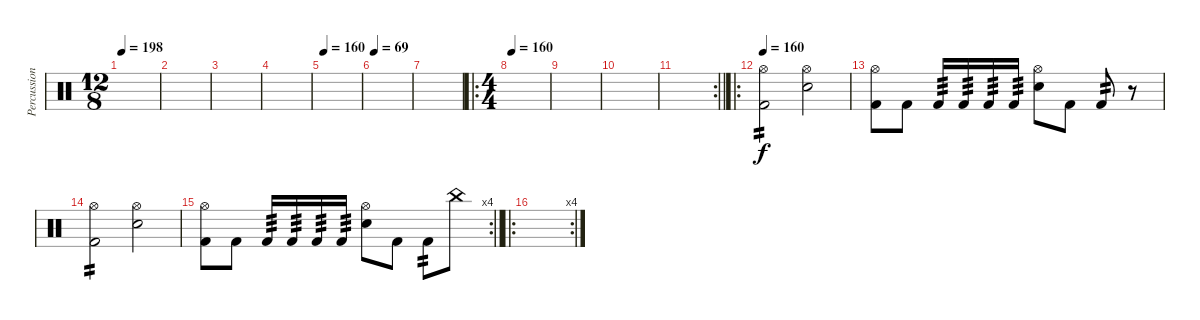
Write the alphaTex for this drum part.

\track ("Percussion" "Percussion") {instrument percussion}
\staff {score}
\articulation defaults
\ts (12 8)
\tempo 198
\clef neutral
\ks c
|
|
|
|
\tempo 160
|
\tempo 69
|
|
\ro
\ts (4 4)
\tempo 160
|
|
|
\rc 2
\barLineRight lightlight
|
\ro
\tempo 160
("Hi-Hat (open)" "Kick (hit) 2").2{tp 2} ("Hi-Hat (open)" "Snare (hit) 2").2 |
("Hi-Hat (open)" "Kick (hit) 2").8 "Kick (hit) 2".8 "Kick (hit) 2".16{tp 3} "Kick (hit) 2".16{tp 3} "Kick (hit) 2".16{tp 3} "Kick (hit) 2".16{tp 3} ("Hi-Hat (open)" "Snare (hit) 2").8 "Kick (hit) 2".8 "Kick (hit) 2".8{tp 2} r.8 |
("Hi-Hat (open)" "Kick (hit) 2").2{tp 2} ("Hi-Hat (open)" "Snare (hit) 2").2 |
\rc 4
\barLineRight lightlight
("Hi-Hat (open)" "Kick (hit) 2").8 "Kick (hit) 2".8 "Kick (hit) 2".16{tp 3} "Kick (hit) 2".16{tp 3} "Kick (hit) 2".16{tp 3} "Kick (hit) 2".16{tp 3} ("Hi-Hat (open)" "Snare (hit) 2").8 "Kick (hit) 2".8 "Kick (hit) 2".8{tp 2} "China (hit)".8 |
\ro
\rc 4
